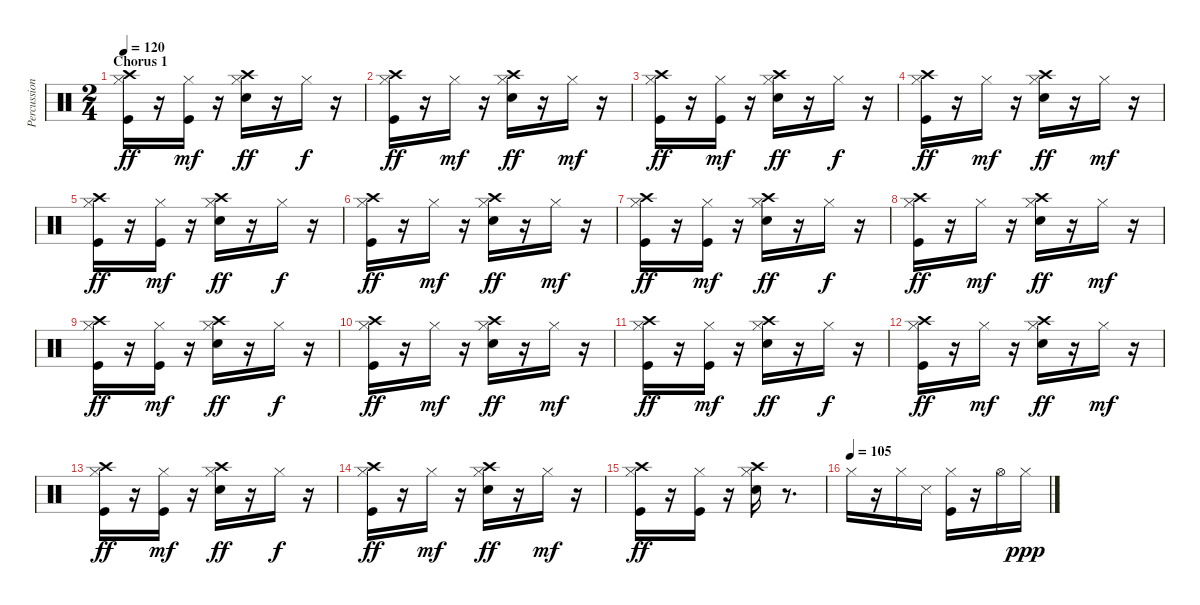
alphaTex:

\track ("Percussion" "Percussion") {instrument percussion}
\staff {score}
\articulation defaults
\ts (2 4)
\section ("" "Chorus 1")
\tempo 120
\clef neutral
\ks c
("Kick (hit)" "Hi-Hat (closed)" "Crash high (hit)").16{dy ff} r.16 ("Kick (hit)" "Hi-Hat (closed)").16{dy mf} r.16 ("Snare (hit) 2" "Hi-Hat (closed)" "Crash high (hit)").16{dy ff} r.16 "Hi-Hat (closed)".16{dy f} r.16 |
("Kick (hit)" "Hi-Hat (closed)" "Crash high (hit)").16{dy ff} r.16 "Hi-Hat (closed)".16{dy mf} r.16 ("Snare (hit) 2" "Hi-Hat (closed)" "Crash high (hit)").16{dy ff} r.16 "Hi-Hat (closed)".16{dy mf} r.16 |
("Kick (hit)" "Hi-Hat (closed)" "Crash high (hit)").16{dy ff} r.16 ("Kick (hit)" "Hi-Hat (closed)").16{dy mf} r.16 ("Snare (hit) 2" "Hi-Hat (closed)" "Crash high (hit)").16{dy ff} r.16 "Hi-Hat (closed)".16{dy f} r.16 |
("Kick (hit)" "Hi-Hat (closed)" "Crash high (hit)").16{dy ff} r.16 "Hi-Hat (closed)".16{dy mf} r.16 ("Snare (hit) 2" "Hi-Hat (closed)" "Crash high (hit)").16{dy ff} r.16 "Hi-Hat (closed)".16{dy mf} r.16 |
("Kick (hit)" "Hi-Hat (closed)" "Crash high (hit)").16{dy ff} r.16 ("Kick (hit)" "Hi-Hat (closed)").16{dy mf} r.16 ("Snare (hit) 2" "Hi-Hat (closed)" "Crash high (hit)").16{dy ff} r.16 "Hi-Hat (closed)".16{dy f} r.16 |
("Kick (hit)" "Hi-Hat (closed)" "Crash high (hit)").16{dy ff} r.16 "Hi-Hat (closed)".16{dy mf} r.16 ("Snare (hit) 2" "Hi-Hat (closed)" "Crash high (hit)").16{dy ff} r.16 "Hi-Hat (closed)".16{dy mf} r.16 |
("Kick (hit)" "Hi-Hat (closed)" "Crash high (hit)").16{dy ff} r.16 ("Kick (hit)" "Hi-Hat (closed)").16{dy mf} r.16 ("Snare (hit) 2" "Hi-Hat (closed)" "Crash high (hit)").16{dy ff} r.16 "Hi-Hat (closed)".16{dy f} r.16 |
("Kick (hit)" "Hi-Hat (closed)" "Crash high (hit)").16{dy ff} r.16 "Hi-Hat (closed)".16{dy mf} r.16 ("Snare (hit) 2" "Hi-Hat (closed)" "Crash high (hit)").16{dy ff} r.16 "Hi-Hat (closed)".16{dy mf} r.16 |
("Kick (hit)" "Hi-Hat (closed)" "Crash high (hit)").16{dy ff} r.16 ("Kick (hit)" "Hi-Hat (closed)").16{dy mf} r.16 ("Snare (hit) 2" "Hi-Hat (closed)" "Crash high (hit)").16{dy ff} r.16 "Hi-Hat (closed)".16{dy f} r.16 |
("Kick (hit)" "Hi-Hat (closed)" "Crash high (hit)").16{dy ff} r.16 "Hi-Hat (closed)".16{dy mf} r.16 ("Snare (hit) 2" "Hi-Hat (closed)" "Crash high (hit)").16{dy ff} r.16 "Hi-Hat (closed)".16{dy mf} r.16 |
("Kick (hit)" "Hi-Hat (closed)" "Crash high (hit)").16{dy ff} r.16 ("Kick (hit)" "Hi-Hat (closed)").16{dy mf} r.16 ("Snare (hit) 2" "Hi-Hat (closed)" "Crash high (hit)").16{dy ff} r.16 "Hi-Hat (closed)".16{dy f} r.16 |
("Kick (hit)" "Hi-Hat (closed)" "Crash high (hit)").16{dy ff} r.16 "Hi-Hat (closed)".16{dy mf} r.16 ("Snare (hit) 2" "Hi-Hat (closed)" "Crash high (hit)").16{dy ff} r.16 "Hi-Hat (closed)".16{dy mf} r.16 |
("Kick (hit)" "Hi-Hat (closed)" "Crash high (hit)").16{dy ff} r.16 ("Kick (hit)" "Hi-Hat (closed)").16{dy mf} r.16 ("Snare (hit) 2" "Hi-Hat (closed)" "Crash high (hit)").16{dy ff} r.16 "Hi-Hat (closed)".16{dy f} r.16 |
("Kick (hit)" "Hi-Hat (closed)" "Crash high (hit)").16{dy ff} r.16 "Hi-Hat (closed)".16{dy mf} r.16 ("Snare (hit) 2" "Hi-Hat (closed)" "Crash high (hit)").16{dy ff} r.16 "Hi-Hat (closed)".16{dy mf} r.16 |
("Kick (hit)" "Hi-Hat (closed)" "Crash high (hit)").16{dy ff} r.16 ("Kick (hit)" "Hi-Hat (closed)").16 r.16 ("Snare (hit) 2" "Hi-Hat (closed)" "Crash high (hit)").16 r.8{d} |
\tempo (105)
"Hi-Hat (closed)".16 r.16 "Hi-Hat (closed)".16 "Snare (side stick) 3".16 ("Kick (hit)" "Hi-Hat (closed)").16 r.16 "Hi-Hat (open)".16 "Hi-Hat (closed)".16{dy ppp}
